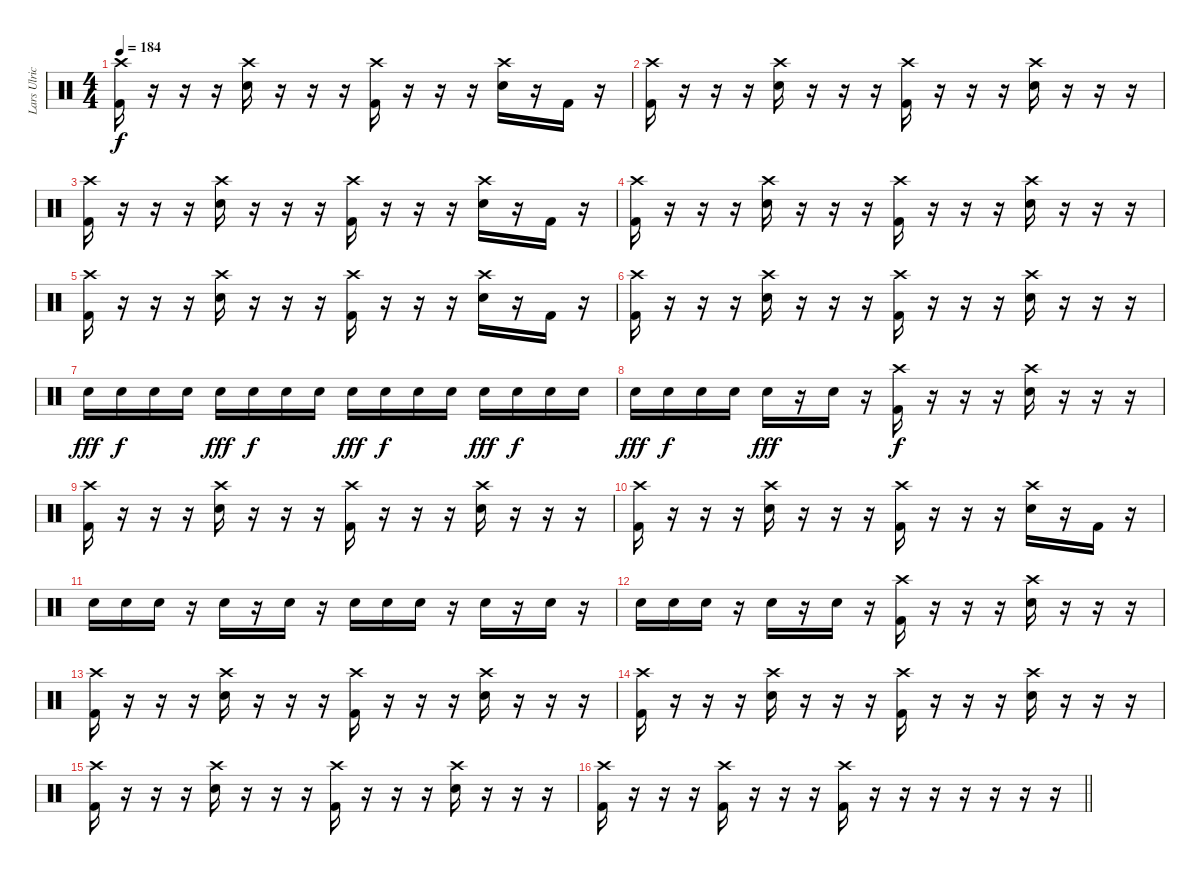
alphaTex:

\track ("Lars Ulrich" "Lars Ulric") {instrument percussion}
\staff {score}
\articulation defaults
\ts (4 4)
\tempo 184
\clef neutral
\ks c
("Crash high (hit)" "Kick (hit) 2").16{dy f} r.16 r.16 r.16 ("Crash high (hit)" "Electric Snare (hit)").16 r.16 r.16 r.16 ("Crash high (hit)" "Kick (hit) 2").16 r.16 r.16 r.16 ("Crash high (hit)" "Electric Snare (hit)").16 r.16 "Kick (hit) 2".16 r.16 |
("Crash high (hit)" "Kick (hit) 2").16 r.16 r.16 r.16 ("Crash high (hit)" "Electric Snare (hit)").16 r.16 r.16 r.16 ("Crash high (hit)" "Kick (hit) 2").16 r.16 r.16 r.16 ("Crash high (hit)" "Electric Snare (hit)").16 r.16 r.16 r.16 |
("Crash high (hit)" "Kick (hit) 2").16 r.16 r.16 r.16 ("Crash high (hit)" "Electric Snare (hit)").16 r.16 r.16 r.16 ("Crash high (hit)" "Kick (hit) 2").16 r.16 r.16 r.16 ("Crash high (hit)" "Electric Snare (hit)").16 r.16 "Kick (hit) 2".16 r.16 |
("Crash high (hit)" "Kick (hit) 2").16 r.16 r.16 r.16 ("Crash high (hit)" "Electric Snare (hit)").16 r.16 r.16 r.16 ("Crash high (hit)" "Kick (hit) 2").16 r.16 r.16 r.16 ("Crash high (hit)" "Electric Snare (hit)").16 r.16 r.16 r.16 |
("Crash high (hit)" "Kick (hit) 2").16 r.16 r.16 r.16 ("Crash high (hit)" "Electric Snare (hit)").16 r.16 r.16 r.16 ("Crash high (hit)" "Kick (hit) 2").16 r.16 r.16 r.16 ("Crash high (hit)" "Electric Snare (hit)").16 r.16 "Kick (hit) 2".16 r.16 |
("Crash high (hit)" "Kick (hit) 2").16 r.16 r.16 r.16 ("Crash high (hit)" "Electric Snare (hit)").16 r.16 r.16 r.16 ("Crash high (hit)" "Kick (hit) 2").16 r.16 r.16 r.16 ("Crash high (hit)" "Electric Snare (hit)").16 r.16 r.16 r.16 |
"Electric Snare (hit)".16{dy fff} "Electric Snare (hit)".16{dy f} "Electric Snare (hit)".16 "Electric Snare (hit)".16 "Electric Snare (hit)".16{dy fff} "Electric Snare (hit)".16{dy f} "Electric Snare (hit)".16 "Electric Snare (hit)".16 "Electric Snare (hit)".16{dy fff} "Electric Snare (hit)".16{dy f} "Electric Snare (hit)".16 "Electric Snare (hit)".16 "Electric Snare (hit)".16{dy fff} "Electric Snare (hit)".16{dy f} "Electric Snare (hit)".16 "Electric Snare (hit)".16 |
"Electric Snare (hit)".16{dy fff} "Electric Snare (hit)".16{dy f} "Electric Snare (hit)".16 "Electric Snare (hit)".16 "Electric Snare (hit)".16{dy fff} r.16 "Electric Snare (hit)".16 r.16 ("Crash high (hit)" "Kick (hit) 2").16{dy f} r.16 r.16 r.16 ("Crash high (hit)" "Electric Snare (hit)").16 r.16 r.16 r.16 |
("Crash high (hit)" "Kick (hit) 2").16 r.16 r.16 r.16 ("Crash high (hit)" "Electric Snare (hit)").16 r.16 r.16 r.16 ("Crash high (hit)" "Kick (hit) 2").16 r.16 r.16 r.16 ("Crash high (hit)" "Electric Snare (hit)").16 r.16 r.16 r.16 |
("Crash high (hit)" "Kick (hit) 2").16 r.16 r.16 r.16 ("Crash high (hit)" "Electric Snare (hit)").16 r.16 r.16 r.16 ("Crash high (hit)" "Kick (hit) 2").16 r.16 r.16 r.16 ("Crash high (hit)" "Electric Snare (hit)").16 r.16 "Kick (hit) 2".16 r.16 |
"Electric Snare (hit)".16 "Electric Snare (hit)".16 "Electric Snare (hit)".16 r.16 "Electric Snare (hit)".16 r.16 "Electric Snare (hit)".16 r.16 "Electric Snare (hit)".16 "Electric Snare (hit)".16 "Electric Snare (hit)".16 r.16 "Electric Snare (hit)".16 r.16 "Electric Snare (hit)".16 r.16 |
"Electric Snare (hit)".16 "Electric Snare (hit)".16 "Electric Snare (hit)".16 r.16 "Electric Snare (hit)".16 r.16 "Electric Snare (hit)".16 r.16 ("Crash high (hit)" "Kick (hit) 2").16 r.16 r.16 r.16 ("Crash high (hit)" "Electric Snare (hit)").16 r.16 r.16 r.16 |
("Crash high (hit)" "Kick (hit) 2").16 r.16 r.16 r.16 ("Crash high (hit)" "Electric Snare (hit)").16 r.16 r.16 r.16 ("Crash high (hit)" "Kick (hit) 2").16 r.16 r.16 r.16 ("Crash high (hit)" "Electric Snare (hit)").16 r.16 r.16 r.16 |
("Crash high (hit)" "Kick (hit) 2").16 r.16 r.16 r.16 ("Crash high (hit)" "Electric Snare (hit)").16 r.16 r.16 r.16 ("Crash high (hit)" "Kick (hit) 2").16 r.16 r.16 r.16 ("Crash high (hit)" "Electric Snare (hit)").16 r.16 r.16 r.16 |
("Crash high (hit)" "Kick (hit) 2").16 r.16 r.16 r.16 ("Crash high (hit)" "Electric Snare (hit)").16 r.16 r.16 r.16 ("Crash high (hit)" "Kick (hit) 2").16 r.16 r.16 r.16 ("Crash high (hit)" "Electric Snare (hit)").16 r.16 r.16 r.16 |
\barLineRight lightlight
("Crash high (hit)" "Kick (hit) 2").16 r.16 r.16 r.16{volume 0} ("Crash high (hit)" "Kick (hit) 2").16{volume 10} r.16 r.16 r.16{volume 0} ("Crash high (hit)" "Kick (hit) 2").16{volume 10} r.16 r.16 r.16{volume 0} r.16 r.16 r.16 r.16
